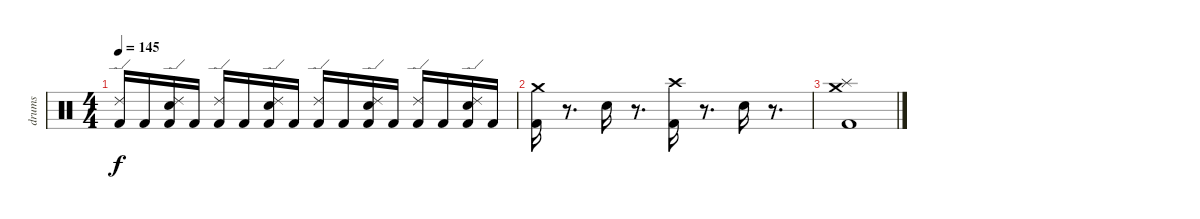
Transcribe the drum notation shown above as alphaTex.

\track ("drums" "drums") {instrument percussion}
\staff {score}
\articulation defaults
\ts (4 4)
\tempo 145
\clef neutral
\ks c
("Ride (edge) 2" "Kick (hit) 2").16{dy f} "Kick (hit) 2".16 ("Kick (hit) 2" "Ride (edge) 2" "Snare (hit) 2").16 "Kick (hit) 2".16 ("Ride (edge) 2" "Kick (hit) 2").16 "Kick (hit) 2".16 ("Kick (hit) 2" "Ride (edge) 2" "Snare (hit) 2").16 "Kick (hit) 2".16 ("Ride (edge) 2" "Kick (hit) 2").16 "Kick (hit) 2".16 ("Kick (hit) 2" "Ride (edge) 2" "Snare (hit) 2").16 "Kick (hit) 2".16 ("Ride (edge) 2" "Kick (hit) 2").16 "Kick (hit) 2".16 ("Kick (hit) 2" "Ride (edge) 2" "Snare (hit) 2").16 "Kick (hit) 2".16 |
("Crash medium (hit)" "Kick (hit) 2").16 r.8{d} "Snare (hit) 2".16 r.8{d} ("Crash high (hit)" "Kick (hit) 2").16 r.8{d} "Snare (hit) 2".16 r.8{d} |
("Splash (hit)" "Crash medium (hit)" "Kick (hit) 2").1
